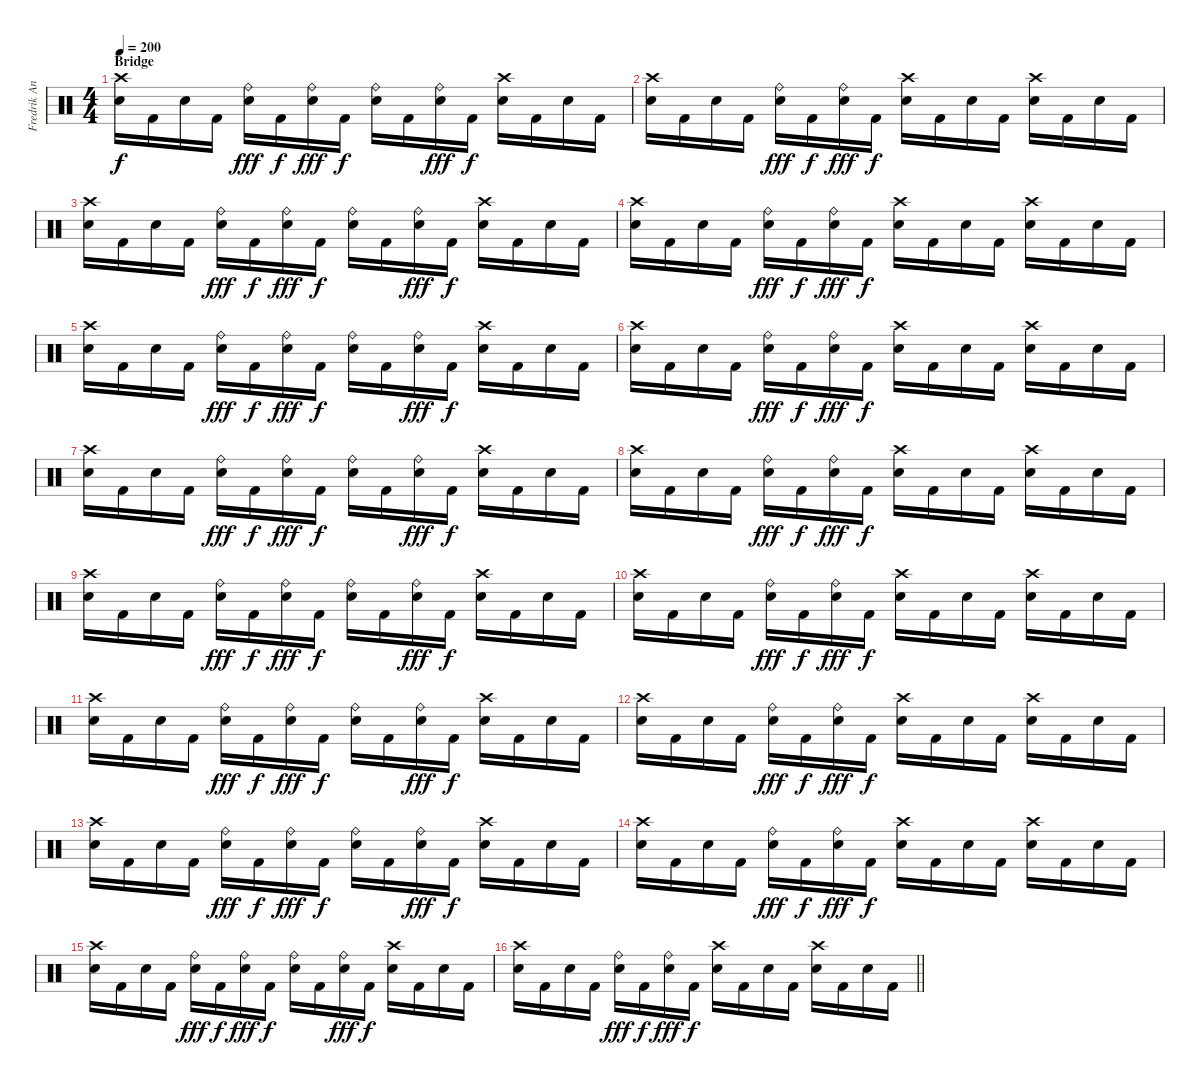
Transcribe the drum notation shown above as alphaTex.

\track ("Fredrik Andersson " "Fredrik An") {instrument percussion}
\staff {score}
\articulation defaults
\ts (4 4)
\section ("" "Bridge")
\tempo 200
\clef neutral
\ks c
("Crash high (hit)" "Snare (hit) 2").16{dy f} "Kick (hit) 2".16 "Snare (hit) 2".16 "Kick (hit) 2".16 ("Ride (bell)" "Snare (hit) 2").16{dy fff} "Kick (hit) 2".16{dy f} ("Ride (bell)" "Snare (hit) 2").16{dy fff} "Kick (hit) 2".16{dy f} ("Ride (bell)" "Snare (hit) 2").16 "Kick (hit) 2".16 ("Ride (bell)" "Snare (hit) 2").16{dy fff} "Kick (hit) 2".16{dy f} ("Crash high (hit)" "Snare (hit) 2").16 "Kick (hit) 2".16 "Snare (hit) 2".16 "Kick (hit) 2".16 |
("Crash high (hit)" "Snare (hit) 2").16 "Kick (hit) 2".16 "Snare (hit) 2".16 "Kick (hit) 2".16 ("Ride (bell)" "Snare (hit) 2").16{dy fff} "Kick (hit) 2".16{dy f} ("Ride (bell)" "Snare (hit) 2").16{dy fff} "Kick (hit) 2".16{dy f} ("Crash high (hit)" "Snare (hit) 2").16 "Kick (hit) 2".16 "Snare (hit) 2".16 "Kick (hit) 2".16 ("Crash high (hit)" "Snare (hit) 2").16 "Kick (hit) 2".16 "Snare (hit) 2".16 "Kick (hit) 2".16 |
("Crash high (hit)" "Snare (hit) 2").16 "Kick (hit) 2".16 "Snare (hit) 2".16 "Kick (hit) 2".16 ("Ride (bell)" "Snare (hit) 2").16{dy fff} "Kick (hit) 2".16{dy f} ("Ride (bell)" "Snare (hit) 2").16{dy fff} "Kick (hit) 2".16{dy f} ("Ride (bell)" "Snare (hit) 2").16 "Kick (hit) 2".16 ("Ride (bell)" "Snare (hit) 2").16{dy fff} "Kick (hit) 2".16{dy f} ("Crash high (hit)" "Snare (hit) 2").16 "Kick (hit) 2".16 "Snare (hit) 2".16 "Kick (hit) 2".16 |
("Crash high (hit)" "Snare (hit) 2").16 "Kick (hit) 2".16 "Snare (hit) 2".16 "Kick (hit) 2".16 ("Ride (bell)" "Snare (hit) 2").16{dy fff} "Kick (hit) 2".16{dy f} ("Ride (bell)" "Snare (hit) 2").16{dy fff} "Kick (hit) 2".16{dy f} ("Crash high (hit)" "Snare (hit) 2").16 "Kick (hit) 2".16 "Snare (hit) 2".16 "Kick (hit) 2".16 ("Crash high (hit)" "Snare (hit) 2").16 "Kick (hit) 2".16 "Snare (hit) 2".16 "Kick (hit) 2".16 |
("Crash high (hit)" "Snare (hit) 2").16 "Kick (hit) 2".16 "Snare (hit) 2".16 "Kick (hit) 2".16 ("Ride (bell)" "Snare (hit) 2").16{dy fff} "Kick (hit) 2".16{dy f} ("Ride (bell)" "Snare (hit) 2").16{dy fff} "Kick (hit) 2".16{dy f} ("Ride (bell)" "Snare (hit) 2").16 "Kick (hit) 2".16 ("Ride (bell)" "Snare (hit) 2").16{dy fff} "Kick (hit) 2".16{dy f} ("Crash high (hit)" "Snare (hit) 2").16 "Kick (hit) 2".16 "Snare (hit) 2".16 "Kick (hit) 2".16 |
("Crash high (hit)" "Snare (hit) 2").16 "Kick (hit) 2".16 "Snare (hit) 2".16 "Kick (hit) 2".16 ("Ride (bell)" "Snare (hit) 2").16{dy fff} "Kick (hit) 2".16{dy f} ("Ride (bell)" "Snare (hit) 2").16{dy fff} "Kick (hit) 2".16{dy f} ("Crash high (hit)" "Snare (hit) 2").16 "Kick (hit) 2".16 "Snare (hit) 2".16 "Kick (hit) 2".16 ("Crash high (hit)" "Snare (hit) 2").16 "Kick (hit) 2".16 "Snare (hit) 2".16 "Kick (hit) 2".16 |
("Crash high (hit)" "Snare (hit) 2").16 "Kick (hit) 2".16 "Snare (hit) 2".16 "Kick (hit) 2".16 ("Ride (bell)" "Snare (hit) 2").16{dy fff} "Kick (hit) 2".16{dy f} ("Ride (bell)" "Snare (hit) 2").16{dy fff} "Kick (hit) 2".16{dy f} ("Ride (bell)" "Snare (hit) 2").16 "Kick (hit) 2".16 ("Ride (bell)" "Snare (hit) 2").16{dy fff} "Kick (hit) 2".16{dy f} ("Crash high (hit)" "Snare (hit) 2").16 "Kick (hit) 2".16 "Snare (hit) 2".16 "Kick (hit) 2".16 |
("Crash high (hit)" "Snare (hit) 2").16 "Kick (hit) 2".16 "Snare (hit) 2".16 "Kick (hit) 2".16 ("Ride (bell)" "Snare (hit) 2").16{dy fff} "Kick (hit) 2".16{dy f} ("Ride (bell)" "Snare (hit) 2").16{dy fff} "Kick (hit) 2".16{dy f} ("Crash high (hit)" "Snare (hit) 2").16 "Kick (hit) 2".16 "Snare (hit) 2".16 "Kick (hit) 2".16 ("Crash high (hit)" "Snare (hit) 2").16 "Kick (hit) 2".16 "Snare (hit) 2".16 "Kick (hit) 2".16 |
("Crash high (hit)" "Snare (hit) 2").16 "Kick (hit) 2".16 "Snare (hit) 2".16 "Kick (hit) 2".16 ("Ride (bell)" "Snare (hit) 2").16{dy fff} "Kick (hit) 2".16{dy f} ("Ride (bell)" "Snare (hit) 2").16{dy fff} "Kick (hit) 2".16{dy f} ("Ride (bell)" "Snare (hit) 2").16 "Kick (hit) 2".16 ("Ride (bell)" "Snare (hit) 2").16{dy fff} "Kick (hit) 2".16{dy f} ("Crash high (hit)" "Snare (hit) 2").16 "Kick (hit) 2".16 "Snare (hit) 2".16 "Kick (hit) 2".16 |
("Crash high (hit)" "Snare (hit) 2").16 "Kick (hit) 2".16 "Snare (hit) 2".16 "Kick (hit) 2".16 ("Ride (bell)" "Snare (hit) 2").16{dy fff} "Kick (hit) 2".16{dy f} ("Ride (bell)" "Snare (hit) 2").16{dy fff} "Kick (hit) 2".16{dy f} ("Crash high (hit)" "Snare (hit) 2").16 "Kick (hit) 2".16 "Snare (hit) 2".16 "Kick (hit) 2".16 ("Crash high (hit)" "Snare (hit) 2").16 "Kick (hit) 2".16 "Snare (hit) 2".16 "Kick (hit) 2".16 |
("Crash high (hit)" "Snare (hit) 2").16 "Kick (hit) 2".16 "Snare (hit) 2".16 "Kick (hit) 2".16 ("Ride (bell)" "Snare (hit) 2").16{dy fff} "Kick (hit) 2".16{dy f} ("Ride (bell)" "Snare (hit) 2").16{dy fff} "Kick (hit) 2".16{dy f} ("Ride (bell)" "Snare (hit) 2").16 "Kick (hit) 2".16 ("Ride (bell)" "Snare (hit) 2").16{dy fff} "Kick (hit) 2".16{dy f} ("Crash high (hit)" "Snare (hit) 2").16 "Kick (hit) 2".16 "Snare (hit) 2".16 "Kick (hit) 2".16 |
("Crash high (hit)" "Snare (hit) 2").16 "Kick (hit) 2".16 "Snare (hit) 2".16 "Kick (hit) 2".16 ("Ride (bell)" "Snare (hit) 2").16{dy fff} "Kick (hit) 2".16{dy f} ("Ride (bell)" "Snare (hit) 2").16{dy fff} "Kick (hit) 2".16{dy f} ("Crash high (hit)" "Snare (hit) 2").16 "Kick (hit) 2".16 "Snare (hit) 2".16 "Kick (hit) 2".16 ("Crash high (hit)" "Snare (hit) 2").16 "Kick (hit) 2".16 "Snare (hit) 2".16 "Kick (hit) 2".16 |
("Crash high (hit)" "Snare (hit) 2").16 "Kick (hit) 2".16 "Snare (hit) 2".16 "Kick (hit) 2".16 ("Ride (bell)" "Snare (hit) 2").16{dy fff} "Kick (hit) 2".16{dy f} ("Ride (bell)" "Snare (hit) 2").16{dy fff} "Kick (hit) 2".16{dy f} ("Ride (bell)" "Snare (hit) 2").16 "Kick (hit) 2".16 ("Ride (bell)" "Snare (hit) 2").16{dy fff} "Kick (hit) 2".16{dy f} ("Crash high (hit)" "Snare (hit) 2").16 "Kick (hit) 2".16 "Snare (hit) 2".16 "Kick (hit) 2".16 |
("Crash high (hit)" "Snare (hit) 2").16 "Kick (hit) 2".16 "Snare (hit) 2".16 "Kick (hit) 2".16 ("Ride (bell)" "Snare (hit) 2").16{dy fff} "Kick (hit) 2".16{dy f} ("Ride (bell)" "Snare (hit) 2").16{dy fff} "Kick (hit) 2".16{dy f} ("Crash high (hit)" "Snare (hit) 2").16 "Kick (hit) 2".16 "Snare (hit) 2".16 "Kick (hit) 2".16 ("Crash high (hit)" "Snare (hit) 2").16 "Kick (hit) 2".16 "Snare (hit) 2".16 "Kick (hit) 2".16 |
("Crash high (hit)" "Snare (hit) 2").16 "Kick (hit) 2".16 "Snare (hit) 2".16 "Kick (hit) 2".16 ("Ride (bell)" "Snare (hit) 2").16{dy fff} "Kick (hit) 2".16{dy f} ("Ride (bell)" "Snare (hit) 2").16{dy fff} "Kick (hit) 2".16{dy f} ("Ride (bell)" "Snare (hit) 2").16 "Kick (hit) 2".16 ("Ride (bell)" "Snare (hit) 2").16{dy fff} "Kick (hit) 2".16{dy f} ("Crash high (hit)" "Snare (hit) 2").16 "Kick (hit) 2".16 "Snare (hit) 2".16 "Kick (hit) 2".16 |
\barLineRight lightlight
("Crash high (hit)" "Snare (hit) 2").16 "Kick (hit) 2".16 "Snare (hit) 2".16 "Kick (hit) 2".16 ("Ride (bell)" "Snare (hit) 2").16{dy fff} "Kick (hit) 2".16{dy f} ("Ride (bell)" "Snare (hit) 2").16{dy fff} "Kick (hit) 2".16{dy f} ("Crash high (hit)" "Snare (hit) 2").16 "Kick (hit) 2".16 "Snare (hit) 2".16 "Kick (hit) 2".16 ("Crash high (hit)" "Snare (hit) 2").16 "Kick (hit) 2".16 "Snare (hit) 2".16 "Kick (hit) 2".16
